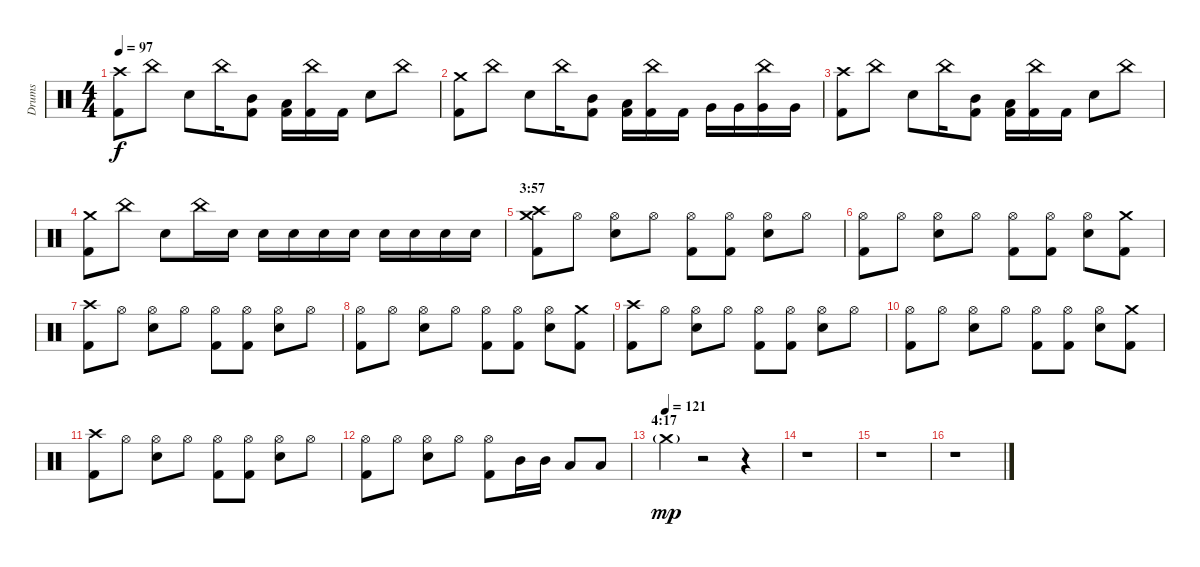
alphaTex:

\track ("Drums" "Drums") {instrument percussion}
\staff {score}
\articulation defaults
\ts (4 4)
\tempo 97
\clef neutral
\ks c
("Crash high (hit)" "Kick (hit) 2").8{dy f} "China (hit)".8 "Snare (hit) 2".8 "China (hit)".16 ("Mid Tom (hit)" "Kick (hit) 2").8 ("Low Tom (hit)" "Kick (hit) 2").16 ("China (hit)" "Kick (hit) 2").16 "Kick (hit) 2".16 "Snare (hit) 2".8 "China (hit)".8 |
("Crash medium (hit)" "Kick (hit) 2").8 "China (hit)".8 "Snare (hit) 2".8 "China (hit)".16 ("Mid Tom (hit)" "Kick (hit) 2").8 ("Low Tom (hit)" "Kick (hit) 2").16 ("China (hit)" "Kick (hit) 2").16 "Kick (hit) 2".16 "Very Low Tom (hit)".16 "Very Low Tom (hit)".16 ("China (hit)" "Very Low Tom (hit)").16 "Very Low Tom (hit)".16 |
("Crash high (hit)" "Kick (hit) 2").8 "China (hit)".8 "Snare (hit) 2".8 "China (hit)".16 ("Mid Tom (hit)" "Kick (hit) 2").8 ("Low Tom (hit)" "Kick (hit) 2").16 ("China (hit)" "Kick (hit) 2").16 "Kick (hit) 2".16 "Snare (hit) 2".8 "China (hit)".8 |
("Crash medium (hit)" "Kick (hit) 2").8 "China (hit)".8 "Snare (hit) 2".8 "China (hit)".16 "Snare (hit) 2".16 "Snare (hit) 2".16 "Snare (hit) 2".16 "Snare (hit) 2".16 "Snare (hit) 2".16 "Snare (hit) 2".16 "Snare (hit) 2".16 "Snare (hit) 2".16 "Snare (hit) 2".16 |
\section ("" "3:57")
("Crash high (hit)" "Crash medium (hit)" "Kick (hit) 2").8 "Hi-Hat (open)".8 ("Hi-Hat (open)" "Snare (hit) 2").8 "Hi-Hat (open)".8 ("Hi-Hat (open)" "Kick (hit) 2").8 ("Hi-Hat (open)" "Kick (hit) 2").8 ("Hi-Hat (open)" "Snare (hit) 2").8 "Hi-Hat (open)".8 |
("Hi-Hat (open)" "Kick (hit) 2").8 "Hi-Hat (open)".8 ("Hi-Hat (open)" "Snare (hit) 2").8 "Hi-Hat (open)".8 ("Hi-Hat (open)" "Kick (hit) 2").8 ("Hi-Hat (open)" "Kick (hit) 2").8 ("Hi-Hat (open)" "Snare (hit) 2").8 ("Crash medium (hit)" "Kick (hit) 2").8 |
("Crash high (hit)" "Kick (hit) 2").8 "Hi-Hat (open)".8 ("Hi-Hat (open)" "Snare (hit) 2").8 "Hi-Hat (open)".8 ("Hi-Hat (open)" "Kick (hit) 2").8 ("Hi-Hat (open)" "Kick (hit) 2").8 ("Hi-Hat (open)" "Snare (hit) 2").8 "Hi-Hat (open)".8 |
("Hi-Hat (open)" "Kick (hit) 2").8 "Hi-Hat (open)".8 ("Hi-Hat (open)" "Snare (hit) 2").8 "Hi-Hat (open)".8 ("Hi-Hat (open)" "Kick (hit) 2").8 ("Hi-Hat (open)" "Kick (hit) 2").8 ("Hi-Hat (open)" "Snare (hit) 2").8 ("Crash medium (hit)" "Kick (hit) 2").8 |
("Crash high (hit)" "Kick (hit) 2").8 "Hi-Hat (open)".8 ("Hi-Hat (open)" "Snare (hit) 2").8 "Hi-Hat (open)".8 ("Hi-Hat (open)" "Kick (hit) 2").8 ("Hi-Hat (open)" "Kick (hit) 2").8 ("Hi-Hat (open)" "Snare (hit) 2").8 "Hi-Hat (open)".8 |
("Hi-Hat (open)" "Kick (hit) 2").8 "Hi-Hat (open)".8 ("Hi-Hat (open)" "Snare (hit) 2").8 "Hi-Hat (open)".8 ("Hi-Hat (open)" "Kick (hit) 2").8 ("Hi-Hat (open)" "Kick (hit) 2").8 ("Hi-Hat (open)" "Snare (hit) 2").8 ("Crash medium (hit)" "Kick (hit) 2").8 |
("Crash high (hit)" "Kick (hit) 2").8 "Hi-Hat (open)".8 ("Hi-Hat (open)" "Snare (hit) 2").8 "Hi-Hat (open)".8 ("Hi-Hat (open)" "Kick (hit) 2").8 ("Hi-Hat (open)" "Kick (hit) 2").8 ("Hi-Hat (open)" "Snare (hit) 2").8 "Hi-Hat (open)".8 |
("Hi-Hat (open)" "Kick (hit) 2").8 "Hi-Hat (open)".8 ("Hi-Hat (open)" "Snare (hit) 2").8 "Hi-Hat (open)".8 ("Hi-Hat (open)" "Kick (hit) 2").8 "Mid Tom (hit)".16 "Mid Tom (hit)".16 "Low Tom (hit)".8 "Low Tom (hit)".8 |
\section ("" "4:17")
\tempo (121)
"Crash medium (hit)"{g}.4{dy mp} r.2 r.4 |
r.1 |
r.1 |
r.1
